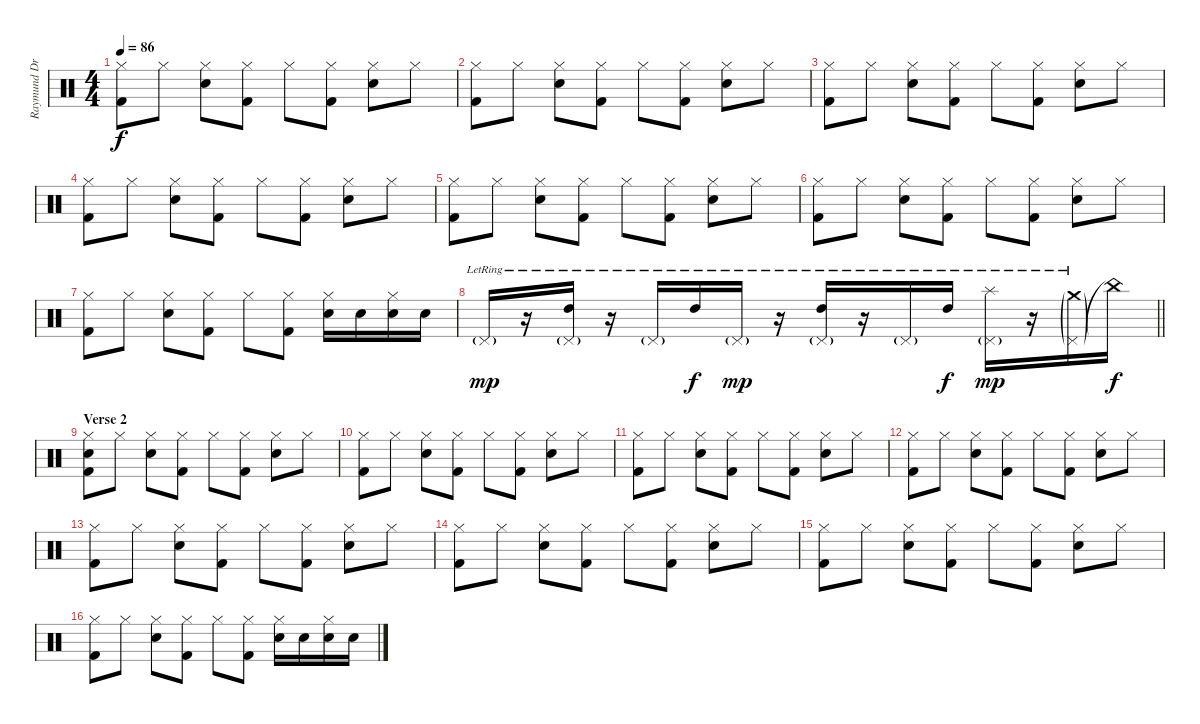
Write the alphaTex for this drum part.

\track ("Raymund Drums" "Raymund Dr") {instrument percussion}
\staff {score}
\articulation defaults
\ts (4 4)
\tempo 86
\clef neutral
\ks c
("Hi-Hat (closed)" "Kick (hit) 2").8{dy f} "Hi-Hat (closed)".8 ("Hi-Hat (closed)" "Snare (hit) 2").8 ("Hi-Hat (closed)" "Kick (hit) 2").8 "Hi-Hat (closed)".8 ("Hi-Hat (closed)" "Kick (hit) 2").8 ("Hi-Hat (closed)" "Snare (hit) 2").8 "Hi-Hat (closed)".8 |
("Hi-Hat (closed)" "Kick (hit) 2").8 "Hi-Hat (closed)".8 ("Hi-Hat (closed)" "Snare (hit) 2").8 ("Hi-Hat (closed)" "Kick (hit) 2").8 "Hi-Hat (closed)".8 ("Hi-Hat (closed)" "Kick (hit) 2").8 ("Hi-Hat (closed)" "Snare (hit) 2").8 "Hi-Hat (closed)".8 |
("Hi-Hat (closed)" "Kick (hit) 2").8 "Hi-Hat (closed)".8 ("Hi-Hat (closed)" "Snare (hit) 2").8 ("Hi-Hat (closed)" "Kick (hit) 2").8 "Hi-Hat (closed)".8 ("Hi-Hat (closed)" "Kick (hit) 2").8 ("Hi-Hat (closed)" "Snare (hit) 2").8 "Hi-Hat (closed)".8 |
("Hi-Hat (closed)" "Kick (hit) 2").8 "Hi-Hat (closed)".8 ("Hi-Hat (closed)" "Snare (hit) 2").8 ("Hi-Hat (closed)" "Kick (hit) 2").8 "Hi-Hat (closed)".8 ("Hi-Hat (closed)" "Kick (hit) 2").8 ("Hi-Hat (closed)" "Snare (hit) 2").8 "Hi-Hat (closed)".8 |
("Hi-Hat (closed)" "Kick (hit) 2").8 "Hi-Hat (closed)".8 ("Hi-Hat (closed)" "Snare (hit) 2").8 ("Hi-Hat (closed)" "Kick (hit) 2").8 "Hi-Hat (closed)".8 ("Hi-Hat (closed)" "Kick (hit) 2").8 ("Hi-Hat (closed)" "Snare (hit) 2").8 "Hi-Hat (closed)".8 |
("Hi-Hat (closed)" "Kick (hit) 2").8 "Hi-Hat (closed)".8 ("Hi-Hat (closed)" "Snare (hit) 2").8 ("Hi-Hat (closed)" "Kick (hit) 2").8 "Hi-Hat (closed)".8 ("Hi-Hat (closed)" "Kick (hit) 2").8 ("Hi-Hat (closed)" "Snare (hit) 2").8 "Hi-Hat (closed)".8 |
("Hi-Hat (closed)" "Kick (hit) 2").8 "Hi-Hat (closed)".8 ("Hi-Hat (closed)" "Snare (hit) 2").8 ("Hi-Hat (closed)" "Kick (hit) 2").8 "Hi-Hat (closed)".8 ("Hi-Hat (closed)" "Kick (hit) 2").8 ("Hi-Hat (closed)" "Snare (hit) 2").16 "Snare (hit) 2".16 ("Hi-Hat (closed)" "Snare (hit) 2").16 "Snare (hit) 2".16 |
\barLineRight lightlight "Pedal Hi-Hat (hit)"{g lr}.16{dy mp}
r.16 ("Pedal Hi-Hat (hit)"{g lr} "High Tom (hit)"{lr}).16 r.16 "Pedal Hi-Hat (hit)"{g lr}.16 "High Tom (hit)"{lr}.16{dy f} "Pedal Hi-Hat (hit)"{g lr}.16{dy mp} r.16 ("Pedal Hi-Hat (hit)"{g lr} "High Tom (hit)"{lr}).16 r.16 "Pedal Hi-Hat (hit)"{g lr}.16 "High Tom (hit)"{lr}.16{dy f} ("Pedal Hi-Hat (hit)"{g lr} "Splash (hit)"{lr}).16{dy mp} r.16 ("Pedal Hi-Hat (hit)"{g lr} "Crash medium (hit)"{g lr}).16 "China (hit)"{t}.16{dy f} |
\section ("" "Verse 2")
("Hi-Hat (closed)" "Kick (hit) 2" "Snare (hit)").8 "Hi-Hat (closed)".8 ("Hi-Hat (closed)" "Snare (hit) 2").8 ("Hi-Hat (closed)" "Kick (hit) 2").8 "Hi-Hat (closed)".8 ("Hi-Hat (closed)" "Kick (hit) 2").8 ("Hi-Hat (closed)" "Snare (hit) 2").8 "Hi-Hat (closed)".8 |
("Hi-Hat (closed)" "Kick (hit) 2").8 "Hi-Hat (closed)".8 ("Hi-Hat (closed)" "Snare (hit) 2").8 ("Hi-Hat (closed)" "Kick (hit) 2").8 "Hi-Hat (closed)".8 ("Hi-Hat (closed)" "Kick (hit) 2").8 ("Hi-Hat (closed)" "Snare (hit) 2").8 "Hi-Hat (closed)".8 |
("Hi-Hat (closed)" "Kick (hit) 2").8 "Hi-Hat (closed)".8 ("Hi-Hat (closed)" "Snare (hit) 2").8 ("Hi-Hat (closed)" "Kick (hit) 2").8 "Hi-Hat (closed)".8 ("Hi-Hat (closed)" "Kick (hit) 2").8 ("Hi-Hat (closed)" "Snare (hit) 2").8 "Hi-Hat (closed)".8 |
("Hi-Hat (closed)" "Kick (hit) 2").8 "Hi-Hat (closed)".8 ("Hi-Hat (closed)" "Snare (hit) 2").8 ("Hi-Hat (closed)" "Kick (hit) 2").8 "Hi-Hat (closed)".8 ("Hi-Hat (closed)" "Kick (hit) 2").8 ("Hi-Hat (closed)" "Snare (hit) 2").8 "Hi-Hat (closed)".8 |
("Hi-Hat (closed)" "Kick (hit) 2").8 "Hi-Hat (closed)".8 ("Hi-Hat (closed)" "Snare (hit) 2").8 ("Hi-Hat (closed)" "Kick (hit) 2").8 "Hi-Hat (closed)".8 ("Hi-Hat (closed)" "Kick (hit) 2").8 ("Hi-Hat (closed)" "Snare (hit) 2").8 "Hi-Hat (closed)".8 |
("Hi-Hat (closed)" "Kick (hit) 2").8 "Hi-Hat (closed)".8 ("Hi-Hat (closed)" "Snare (hit) 2").8 ("Hi-Hat (closed)" "Kick (hit) 2").8 "Hi-Hat (closed)".8 ("Hi-Hat (closed)" "Kick (hit) 2").8 ("Hi-Hat (closed)" "Snare (hit) 2").8 "Hi-Hat (closed)".8 |
("Hi-Hat (closed)" "Kick (hit) 2").8 "Hi-Hat (closed)".8 ("Hi-Hat (closed)" "Snare (hit) 2").8 ("Hi-Hat (closed)" "Kick (hit) 2").8 "Hi-Hat (closed)".8 ("Hi-Hat (closed)" "Kick (hit) 2").8 ("Hi-Hat (closed)" "Snare (hit) 2").8 "Hi-Hat (closed)".8 |
("Hi-Hat (closed)" "Kick (hit) 2").8 "Hi-Hat (closed)".8 ("Hi-Hat (closed)" "Snare (hit) 2").8 ("Hi-Hat (closed)" "Kick (hit) 2").8 "Hi-Hat (closed)".8 ("Hi-Hat (closed)" "Kick (hit) 2").8 ("Hi-Hat (closed)" "Snare (hit) 2").16 "Snare (hit) 2".16 ("Hi-Hat (closed)" "Snare (hit) 2").16 "Snare (hit) 2".16
